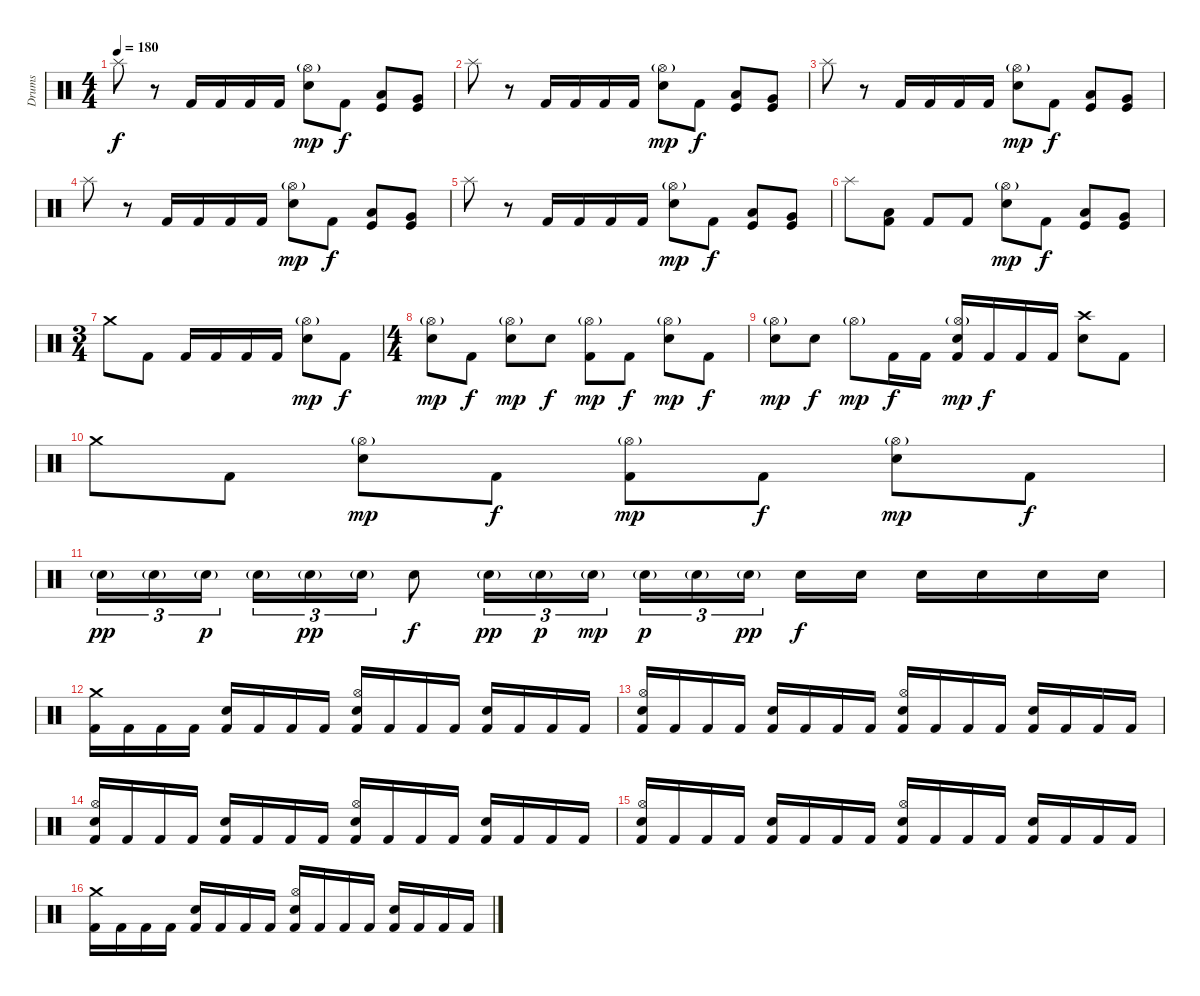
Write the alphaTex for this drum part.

\track ("Drums" "Drums") {instrument percussion}
\staff {score}
\articulation defaults
\ts (4 4)
\tempo 180
\clef neutral
\ks c "Splash (hit)".8{dy f}
r.8 "Kick (hit) 2".16 "Kick (hit) 2".16 "Kick (hit) 2".16 "Kick (hit) 2".16 ("Hi-Hat (open)"{g} "Electric Snare (hit)").8{dy mp} "Kick (hit) 2".8{dy f} ("Low Tom (hit)" "Kick (hit)").8 ("Very Low Tom (hit)" "Kick (hit)").8 |
"Splash (hit)".8 r.8 "Kick (hit) 2".16 "Kick (hit) 2".16 "Kick (hit) 2".16 "Kick (hit) 2".16 ("Hi-Hat (open)"{g} "Electric Snare (hit)").8{dy mp} "Kick (hit) 2".8{dy f} ("Low Tom (hit)" "Kick (hit)").8 ("Very Low Tom (hit)" "Kick (hit)").8 |
"Splash (hit)".8 r.8 "Kick (hit) 2".16 "Kick (hit) 2".16 "Kick (hit) 2".16 "Kick (hit) 2".16 ("Hi-Hat (open)"{g} "Electric Snare (hit)").8{dy mp} "Kick (hit) 2".8{dy f} ("Low Tom (hit)" "Kick (hit)").8 ("Very Low Tom (hit)" "Kick (hit)").8 |
"Splash (hit)".8 r.8 "Kick (hit) 2".16 "Kick (hit) 2".16 "Kick (hit) 2".16 "Kick (hit) 2".16 ("Hi-Hat (open)"{g} "Electric Snare (hit)").8{dy mp} "Kick (hit) 2".8{dy f} ("Low Tom (hit)" "Kick (hit)").8 ("Very Low Tom (hit)" "Kick (hit)").8 |
"Splash (hit)".8 r.8 "Kick (hit) 2".16 "Kick (hit) 2".16 "Kick (hit) 2".16 "Kick (hit) 2".16 ("Hi-Hat (open)"{g} "Electric Snare (hit)").8{dy mp} "Kick (hit) 2".8{dy f} ("Low Tom (hit)" "Kick (hit)").8 ("Very Low Tom (hit)" "Kick (hit)").8 |
"Splash (hit)".8 ("Low Tom (hit)" "Kick (hit) 2").8 "Kick (hit) 2".8 "Kick (hit) 2".8 ("Hi-Hat (open)"{g} "Electric Snare (hit)").8{dy mp} "Kick (hit) 2".8{dy f} ("Low Tom (hit)" "Kick (hit)").8 ("Very Low Tom (hit)" "Kick (hit)").8 |
\ts (3 4)
"Crash medium (hit)".8 "Kick (hit) 2".8 "Kick (hit) 2".16 "Kick (hit) 2".16 "Kick (hit) 2".16 "Kick (hit) 2".16 ("Hi-Hat (open)"{g} "Electric Snare (hit)").8{dy mp} "Kick (hit) 2".8{dy f} |
\ts (4 4)
("Hi-Hat (open)"{g} "Electric Snare (hit)").8{dy mp} "Kick (hit) 2".8{dy f} ("Hi-Hat (open)"{g} "Electric Snare (hit)").8{dy mp} "Electric Snare (hit)".8{dy f} ("Hi-Hat (open)"{g} "Kick (hit) 2").8{dy mp} "Kick (hit) 2".8{dy f} ("Hi-Hat (open)"{g} "Electric Snare (hit)").8{dy mp} "Kick (hit) 2".8{dy f} |
("Hi-Hat (open)"{g} "Electric Snare (hit)").8{dy mp} "Electric Snare (hit)".8{dy f} "Hi-Hat (open)"{g}.8{dy mp} "Kick (hit) 2".16{dy f} "Kick (hit) 2".16 ("Hi-Hat (open)"{g} "Electric Snare (hit)" "Kick (hit) 2").16{dy mp} "Kick (hit) 2".16{dy f} "Kick (hit) 2".16 "Kick (hit) 2".16 ("Crash high (hit)" "Electric Snare (hit)").8 "Kick (hit) 2".8 |
"Crash medium (hit)".8 "Kick (hit) 2".8 ("Hi-Hat (open)"{g} "Electric Snare (hit)").8{dy mp} "Kick (hit) 2".8{dy f} ("Hi-Hat (open)"{g} "Kick (hit) 2").8{dy mp} "Kick (hit) 2".8{dy f} ("Hi-Hat (open)"{g} "Electric Snare (hit)").8{dy mp} "Kick (hit) 2".8{dy f} |
"Electric Snare (hit)"{g}.16{tu (3 2) dy pp} "Electric Snare (hit)"{g}.16{tu (3 2)} "Electric Snare (hit)"{g}.16{tu (3 2) dy p beam splitsecondary} "Electric Snare (hit)"{g}.16{tu (3 2)} "Electric Snare (hit)"{g}.16{tu (3 2) dy pp} "Electric Snare (hit)"{g}.16{tu (3 2)} "Electric Snare (hit)".8{dy f} "Electric Snare (hit)"{g}.16{tu (3 2) dy pp} "Electric Snare (hit)"{g}.16{tu (3 2) dy p} "Electric Snare (hit)"{g}.16{tu (3 2) dy mp} "Electric Snare (hit)"{g}.16{tu (3 2) dy p} "Electric Snare (hit)"{g}.16{tu (3 2)} "Electric Snare (hit)"{g}.16{tu (3 2) dy pp beam splitsecondary} "Electric Snare (hit)".16{dy f} "Electric Snare (hit)".16 "Electric Snare (hit)".16 "Electric Snare (hit)".16 "Electric Snare (hit)".16 "Electric Snare (hit)".16 |
("Crash medium (hit)" "Kick (hit) 2").16 "Kick (hit) 2".16 "Kick (hit) 2".16 "Kick (hit) 2".16 ("Electric Snare (hit)" "Kick (hit) 2").16 "Kick (hit) 2".16 "Kick (hit) 2".16 "Kick (hit) 2".16 ("Hi-Hat (open)" "Electric Snare (hit)" "Kick (hit) 2").16 "Kick (hit) 2".16 "Kick (hit) 2".16 "Kick (hit) 2".16 ("Electric Snare (hit)" "Kick (hit) 2").16 "Kick (hit) 2".16 "Kick (hit) 2".16 "Kick (hit) 2".16 |
("Hi-Hat (open)" "Electric Snare (hit)" "Kick (hit) 2").16 "Kick (hit) 2".16 "Kick (hit) 2".16 "Kick (hit) 2".16 ("Electric Snare (hit)" "Kick (hit) 2").16 "Kick (hit) 2".16 "Kick (hit) 2".16 "Kick (hit) 2".16 ("Hi-Hat (open)" "Electric Snare (hit)" "Kick (hit) 2").16 "Kick (hit) 2".16 "Kick (hit) 2".16 "Kick (hit) 2".16 ("Electric Snare (hit)" "Kick (hit) 2").16 "Kick (hit) 2".16 "Kick (hit) 2".16 "Kick (hit) 2".16 |
("Hi-Hat (open)" "Electric Snare (hit)" "Kick (hit) 2").16 "Kick (hit) 2".16 "Kick (hit) 2".16 "Kick (hit) 2".16 ("Electric Snare (hit)" "Kick (hit) 2").16 "Kick (hit) 2".16 "Kick (hit) 2".16 "Kick (hit) 2".16 ("Hi-Hat (open)" "Electric Snare (hit)" "Kick (hit) 2").16 "Kick (hit) 2".16 "Kick (hit) 2".16 "Kick (hit) 2".16 ("Electric Snare (hit)" "Kick (hit) 2").16 "Kick (hit) 2".16 "Kick (hit) 2".16 "Kick (hit) 2".16 |
("Hi-Hat (open)" "Electric Snare (hit)" "Kick (hit) 2").16 "Kick (hit) 2".16 "Kick (hit) 2".16 "Kick (hit) 2".16 ("Electric Snare (hit)" "Kick (hit) 2").16 "Kick (hit) 2".16 "Kick (hit) 2".16 "Kick (hit) 2".16 ("Hi-Hat (open)" "Electric Snare (hit)" "Kick (hit) 2").16 "Kick (hit) 2".16 "Kick (hit) 2".16 "Kick (hit) 2".16 ("Electric Snare (hit)" "Kick (hit) 2").16 "Kick (hit) 2".16 "Kick (hit) 2".16 "Kick (hit) 2".16 |
("Crash medium (hit)" "Kick (hit) 2").16 "Kick (hit) 2".16 "Kick (hit) 2".16 "Kick (hit) 2".16 ("Electric Snare (hit)" "Kick (hit) 2").16 "Kick (hit) 2".16 "Kick (hit) 2".16 "Kick (hit) 2".16 ("Hi-Hat (open)" "Electric Snare (hit)" "Kick (hit) 2").16 "Kick (hit) 2".16 "Kick (hit) 2".16 "Kick (hit) 2".16 ("Electric Snare (hit)" "Kick (hit) 2").16 "Kick (hit) 2".16 "Kick (hit) 2".16 "Kick (hit) 2".16
